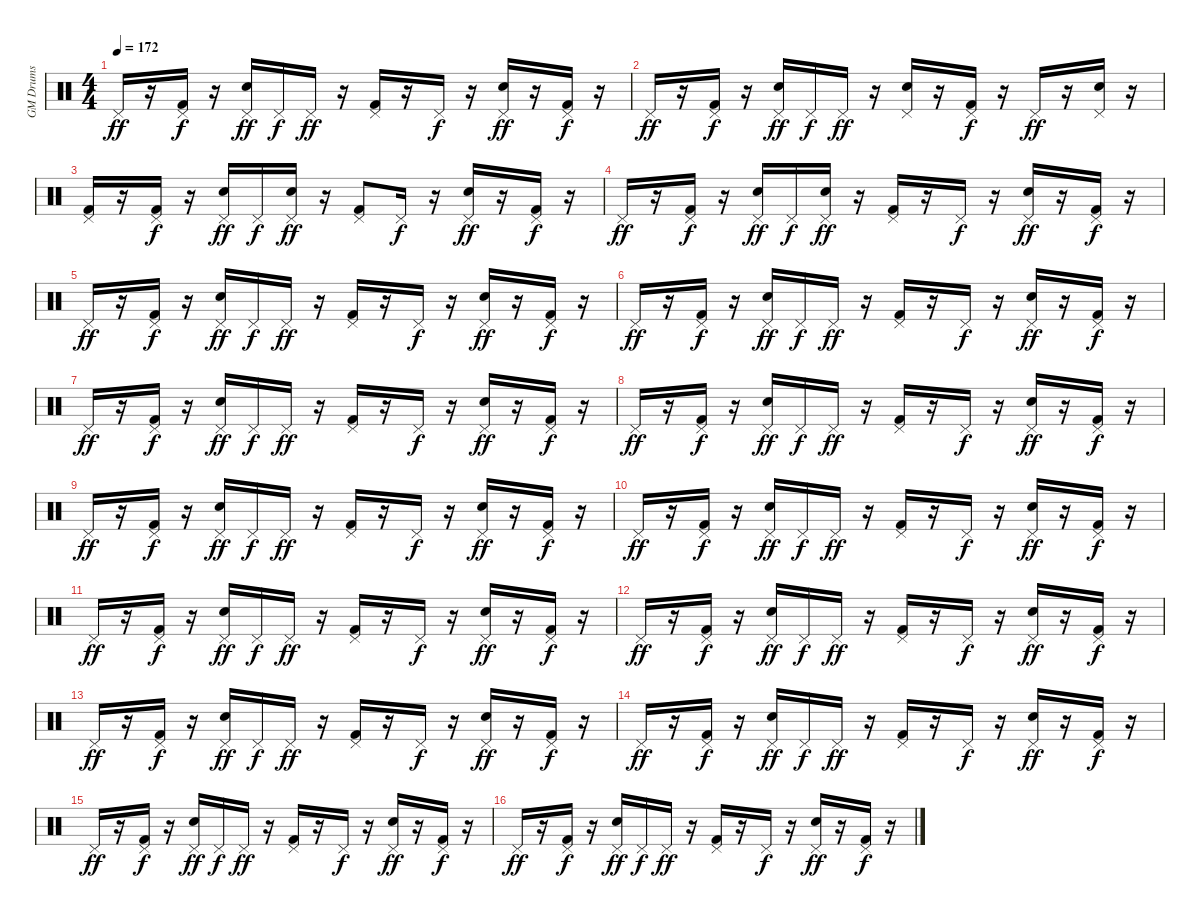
\track ("GM Drums" "GM Drums") {instrument percussion}
\staff {score}
\articulation defaults
\ts (4 4)
\tempo 172
\clef neutral
\ks c "Pedal Hi-Hat (hit)".16{dy ff}
r.16 ("Kick (hit) 2" "Pedal Hi-Hat (hit)").16{dy f} r.16 ("Snare (hit) 2" "Pedal Hi-Hat (hit)").16{dy ff} "Pedal Hi-Hat (hit)".16{dy f} "Pedal Hi-Hat (hit)".16{dy ff} r.16 ("Kick (hit) 2" "Pedal Hi-Hat (hit)").16 r.16 "Pedal Hi-Hat (hit)".16{dy f} r.16 ("Snare (hit) 2" "Pedal Hi-Hat (hit)").16{dy ff} r.16 ("Kick (hit) 2" "Pedal Hi-Hat (hit)").16{dy f} r.16 |
"Pedal Hi-Hat (hit)".16{dy ff} r.16 ("Kick (hit) 2" "Pedal Hi-Hat (hit)").16{dy f} r.16 ("Snare (hit) 2" "Pedal Hi-Hat (hit)").16{dy ff} "Pedal Hi-Hat (hit)".16{dy f} "Pedal Hi-Hat (hit)".16{dy ff} r.16 ("Snare (hit) 2" "Pedal Hi-Hat (hit)").16 r.16 ("Kick (hit) 2" "Pedal Hi-Hat (hit)").16{dy f} r.16 "Pedal Hi-Hat (hit)".16{dy ff} r.16 ("Snare (hit) 2" "Pedal Hi-Hat (hit)").16 r.16 |
("Kick (hit) 2" "Pedal Hi-Hat (hit)").16 r.16 ("Kick (hit) 2" "Pedal Hi-Hat (hit)").16{dy f} r.16 ("Snare (hit) 2" "Pedal Hi-Hat (hit)").16{dy ff} "Pedal Hi-Hat (hit)".16{dy f} ("Snare (hit) 2" "Pedal Hi-Hat (hit)").16{dy ff} r.16 ("Kick (hit) 2" "Pedal Hi-Hat (hit)").8 "Pedal Hi-Hat (hit)".16{dy f} r.16 ("Snare (hit) 2" "Pedal Hi-Hat (hit)").16{dy ff} r.16 ("Kick (hit) 2" "Pedal Hi-Hat (hit)").16{dy f} r.16 |
"Pedal Hi-Hat (hit)".16{dy ff} r.16 ("Kick (hit) 2" "Pedal Hi-Hat (hit)").16{dy f} r.16 ("Snare (hit) 2" "Pedal Hi-Hat (hit)").16{dy ff} "Pedal Hi-Hat (hit)".16{dy f} ("Snare (hit) 2" "Pedal Hi-Hat (hit)").16{dy ff} r.16 ("Kick (hit) 2" "Pedal Hi-Hat (hit)").16 r.16 "Pedal Hi-Hat (hit)".16{dy f} r.16 ("Snare (hit) 2" "Pedal Hi-Hat (hit)").16{dy ff} r.16 ("Kick (hit) 2" "Pedal Hi-Hat (hit)").16{dy f} r.16 |
"Pedal Hi-Hat (hit)".16{dy ff} r.16 ("Kick (hit) 2" "Pedal Hi-Hat (hit)").16{dy f} r.16 ("Snare (hit) 2" "Pedal Hi-Hat (hit)").16{dy ff} "Pedal Hi-Hat (hit)".16{dy f} "Pedal Hi-Hat (hit)".16{dy ff} r.16 ("Kick (hit) 2" "Pedal Hi-Hat (hit)").16 r.16 "Pedal Hi-Hat (hit)".16{dy f} r.16 ("Snare (hit) 2" "Pedal Hi-Hat (hit)").16{dy ff} r.16 ("Kick (hit) 2" "Pedal Hi-Hat (hit)").16{dy f} r.16 |
"Pedal Hi-Hat (hit)".16{dy ff} r.16 ("Kick (hit) 2" "Pedal Hi-Hat (hit)").16{dy f} r.16 ("Snare (hit) 2" "Pedal Hi-Hat (hit)").16{dy ff} "Pedal Hi-Hat (hit)".16{dy f} "Pedal Hi-Hat (hit)".16{dy ff} r.16 ("Kick (hit) 2" "Pedal Hi-Hat (hit)").16 r.16 "Pedal Hi-Hat (hit)".16{dy f} r.16 ("Snare (hit) 2" "Pedal Hi-Hat (hit)").16{dy ff} r.16 ("Kick (hit) 2" "Pedal Hi-Hat (hit)").16{dy f} r.16 |
"Pedal Hi-Hat (hit)".16{dy ff} r.16 ("Kick (hit) 2" "Pedal Hi-Hat (hit)").16{dy f} r.16 ("Snare (hit) 2" "Pedal Hi-Hat (hit)").16{dy ff} "Pedal Hi-Hat (hit)".16{dy f} "Pedal Hi-Hat (hit)".16{dy ff} r.16 ("Kick (hit) 2" "Pedal Hi-Hat (hit)").16 r.16 "Pedal Hi-Hat (hit)".16{dy f} r.16 ("Snare (hit) 2" "Pedal Hi-Hat (hit)").16{dy ff} r.16 ("Kick (hit) 2" "Pedal Hi-Hat (hit)").16{dy f} r.16 |
"Pedal Hi-Hat (hit)".16{dy ff} r.16 ("Kick (hit) 2" "Pedal Hi-Hat (hit)").16{dy f} r.16 ("Snare (hit) 2" "Pedal Hi-Hat (hit)").16{dy ff} "Pedal Hi-Hat (hit)".16{dy f} "Pedal Hi-Hat (hit)".16{dy ff} r.16 ("Kick (hit) 2" "Pedal Hi-Hat (hit)").16 r.16 "Pedal Hi-Hat (hit)".16{dy f} r.16 ("Snare (hit) 2" "Pedal Hi-Hat (hit)").16{dy ff} r.16 ("Kick (hit) 2" "Pedal Hi-Hat (hit)").16{dy f} r.16 |
"Pedal Hi-Hat (hit)".16{dy ff} r.16 ("Kick (hit) 2" "Pedal Hi-Hat (hit)").16{dy f} r.16 ("Snare (hit) 2" "Pedal Hi-Hat (hit)").16{dy ff} "Pedal Hi-Hat (hit)".16{dy f} "Pedal Hi-Hat (hit)".16{dy ff} r.16 ("Kick (hit) 2" "Pedal Hi-Hat (hit)").16 r.16 "Pedal Hi-Hat (hit)".16{dy f} r.16 ("Snare (hit) 2" "Pedal Hi-Hat (hit)").16{dy ff} r.16 ("Kick (hit) 2" "Pedal Hi-Hat (hit)").16{dy f} r.16 |
"Pedal Hi-Hat (hit)".16{dy ff} r.16 ("Kick (hit) 2" "Pedal Hi-Hat (hit)").16{dy f} r.16 ("Snare (hit) 2" "Pedal Hi-Hat (hit)").16{dy ff} "Pedal Hi-Hat (hit)".16{dy f} "Pedal Hi-Hat (hit)".16{dy ff} r.16 ("Kick (hit) 2" "Pedal Hi-Hat (hit)").16 r.16 "Pedal Hi-Hat (hit)".16{dy f} r.16 ("Snare (hit) 2" "Pedal Hi-Hat (hit)").16{dy ff} r.16 ("Kick (hit) 2" "Pedal Hi-Hat (hit)").16{dy f} r.16 |
"Pedal Hi-Hat (hit)".16{dy ff} r.16 ("Kick (hit) 2" "Pedal Hi-Hat (hit)").16{dy f} r.16 ("Snare (hit) 2" "Pedal Hi-Hat (hit)").16{dy ff} "Pedal Hi-Hat (hit)".16{dy f} "Pedal Hi-Hat (hit)".16{dy ff} r.16 ("Kick (hit) 2" "Pedal Hi-Hat (hit)").16 r.16 "Pedal Hi-Hat (hit)".16{dy f} r.16 ("Snare (hit) 2" "Pedal Hi-Hat (hit)").16{dy ff} r.16 ("Kick (hit) 2" "Pedal Hi-Hat (hit)").16{dy f} r.16 |
"Pedal Hi-Hat (hit)".16{dy ff} r.16 ("Kick (hit) 2" "Pedal Hi-Hat (hit)").16{dy f} r.16 ("Snare (hit) 2" "Pedal Hi-Hat (hit)").16{dy ff} "Pedal Hi-Hat (hit)".16{dy f} "Pedal Hi-Hat (hit)".16{dy ff} r.16 ("Kick (hit) 2" "Pedal Hi-Hat (hit)").16 r.16 "Pedal Hi-Hat (hit)".16{dy f} r.16 ("Snare (hit) 2" "Pedal Hi-Hat (hit)").16{dy ff} r.16 ("Kick (hit) 2" "Pedal Hi-Hat (hit)").16{dy f} r.16 |
"Pedal Hi-Hat (hit)".16{dy ff} r.16 ("Kick (hit) 2" "Pedal Hi-Hat (hit)").16{dy f} r.16 ("Snare (hit) 2" "Pedal Hi-Hat (hit)").16{dy ff} "Pedal Hi-Hat (hit)".16{dy f} "Pedal Hi-Hat (hit)".16{dy ff} r.16 ("Kick (hit) 2" "Pedal Hi-Hat (hit)").16 r.16 "Pedal Hi-Hat (hit)".16{dy f} r.16 ("Snare (hit) 2" "Pedal Hi-Hat (hit)").16{dy ff} r.16 ("Kick (hit) 2" "Pedal Hi-Hat (hit)").16{dy f} r.16 |
"Pedal Hi-Hat (hit)".16{dy ff} r.16 ("Kick (hit) 2" "Pedal Hi-Hat (hit)").16{dy f} r.16 ("Snare (hit) 2" "Pedal Hi-Hat (hit)").16{dy ff} "Pedal Hi-Hat (hit)".16{dy f} "Pedal Hi-Hat (hit)".16{dy ff} r.16 ("Kick (hit) 2" "Pedal Hi-Hat (hit)").16 r.16 "Pedal Hi-Hat (hit)".16{dy f} r.16 ("Snare (hit) 2" "Pedal Hi-Hat (hit)").16{dy ff} r.16 ("Kick (hit) 2" "Pedal Hi-Hat (hit)").16{dy f} r.16 |
"Pedal Hi-Hat (hit)".16{dy ff} r.16 ("Kick (hit) 2" "Pedal Hi-Hat (hit)").16{dy f} r.16 ("Snare (hit) 2" "Pedal Hi-Hat (hit)").16{dy ff} "Pedal Hi-Hat (hit)".16{dy f} "Pedal Hi-Hat (hit)".16{dy ff} r.16 ("Kick (hit) 2" "Pedal Hi-Hat (hit)").16 r.16 "Pedal Hi-Hat (hit)".16{dy f} r.16 ("Snare (hit) 2" "Pedal Hi-Hat (hit)").16{dy ff} r.16 ("Kick (hit) 2" "Pedal Hi-Hat (hit)").16{dy f} r.16 |
"Pedal Hi-Hat (hit)".16{dy ff} r.16 ("Kick (hit) 2" "Pedal Hi-Hat (hit)").16{dy f} r.16 ("Snare (hit) 2" "Pedal Hi-Hat (hit)").16{dy ff} "Pedal Hi-Hat (hit)".16{dy f} "Pedal Hi-Hat (hit)".16{dy ff} r.16 ("Kick (hit) 2" "Pedal Hi-Hat (hit)").16 r.16 "Pedal Hi-Hat (hit)".16{dy f} r.16 ("Snare (hit) 2" "Pedal Hi-Hat (hit)").16{dy ff} r.16 ("Kick (hit) 2" "Pedal Hi-Hat (hit)").16{dy f} r.16
